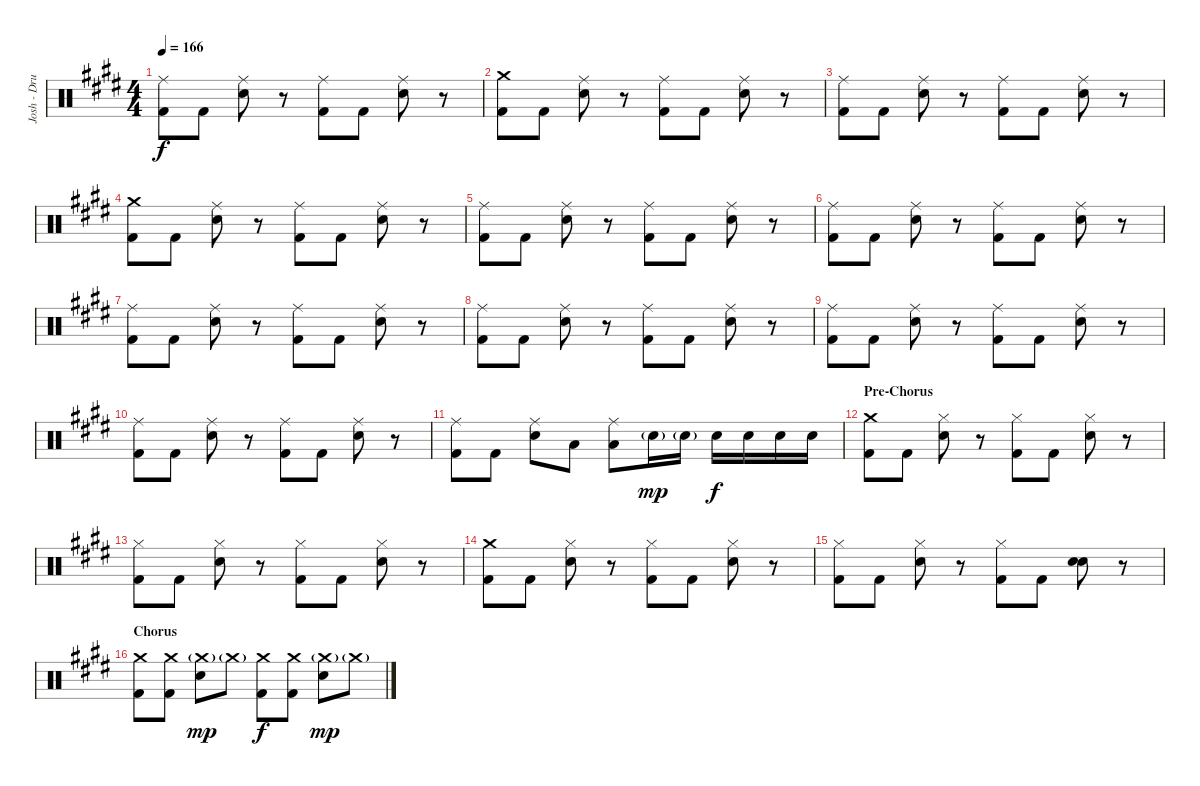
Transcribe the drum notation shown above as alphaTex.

\track ("Josh - Drums" "Josh - Dru") {instrument percussion}
\staff {score}
\articulation defaults
\ts (4 4)
\tempo 166
\clef neutral
\ks e
("Ride (middle)" "Kick (hit) 2").8{dy f} "Kick (hit) 2".8 ("Ride (middle)" "Electric Snare (hit)").8 r.8 ("Ride (middle)" "Kick (hit) 2").8 "Kick (hit) 2".8 ("Ride (middle)" "Electric Snare (hit)").8 r.8 |
("Crash medium (hit)" "Kick (hit) 2").8 "Kick (hit) 2".8 ("Ride (middle)" "Electric Snare (hit)").8 r.8 ("Ride (middle)" "Kick (hit) 2").8 "Kick (hit) 2".8 ("Ride (middle)" "Electric Snare (hit)").8 r.8 |
("Ride (middle)" "Kick (hit) 2").8 "Kick (hit) 2".8 ("Ride (middle)" "Electric Snare (hit)").8 r.8 ("Ride (middle)" "Kick (hit) 2").8 "Kick (hit) 2".8 ("Ride (middle)" "Electric Snare (hit)").8 r.8 |
("Crash medium (hit)" "Kick (hit) 2").8 "Kick (hit) 2".8 ("Ride (middle)" "Electric Snare (hit)").8 r.8 ("Ride (middle)" "Kick (hit) 2").8 "Kick (hit) 2".8 ("Ride (middle)" "Electric Snare (hit)").8 r.8 |
("Ride (middle)" "Kick (hit) 2").8 "Kick (hit) 2".8 ("Ride (middle)" "Electric Snare (hit)").8 r.8 ("Ride (middle)" "Kick (hit) 2").8 "Kick (hit) 2".8 ("Ride (middle)" "Electric Snare (hit)").8 r.8 |
("Ride (middle)" "Kick (hit) 2").8 "Kick (hit) 2".8 ("Ride (middle)" "Electric Snare (hit)").8 r.8 ("Ride (middle)" "Kick (hit) 2").8 "Kick (hit) 2".8 ("Ride (middle)" "Electric Snare (hit)").8 r.8 |
("Ride (middle)" "Kick (hit) 2").8 "Kick (hit) 2".8 ("Ride (middle)" "Electric Snare (hit)").8 r.8 ("Ride (middle)" "Kick (hit) 2").8 "Kick (hit) 2".8 ("Ride (middle)" "Electric Snare (hit)").8 r.8 |
("Ride (middle)" "Kick (hit) 2").8 "Kick (hit) 2".8 ("Ride (middle)" "Electric Snare (hit)").8 r.8 ("Ride (middle)" "Kick (hit) 2").8 "Kick (hit) 2".8 ("Ride (middle)" "Electric Snare (hit)").8 r.8 |
("Ride (middle)" "Kick (hit) 2").8 "Kick (hit) 2".8 ("Ride (middle)" "Electric Snare (hit)").8 r.8 ("Ride (middle)" "Kick (hit) 2").8 "Kick (hit) 2".8 ("Ride (middle)" "Electric Snare (hit)").8 r.8 |
("Ride (middle)" "Kick (hit) 2").8 "Kick (hit) 2".8 ("Ride (middle)" "Electric Snare (hit)").8 r.8 ("Ride (middle)" "Kick (hit) 2").8 "Kick (hit) 2".8 ("Ride (middle)" "Electric Snare (hit)").8 r.8 |
("Ride (middle)" "Kick (hit) 2").8 "Kick (hit) 2".8 ("Ride (middle)" "Electric Snare (hit)").8 "Low Tom (hit)".8 ("Ride (middle)" "Low Tom (hit)").8 "Electric Snare (hit)"{g}.16{dy mp} "Electric Snare (hit)"{g}.16 "Electric Snare (hit)".16{dy f} "Electric Snare (hit)".16 "Electric Snare (hit)".16 "Electric Snare (hit)".16 |
\section ("" "Pre-Chorus")
("Crash medium (hit)" "Kick (hit) 2").8 "Kick (hit) 2".8 ("Hi-Hat (closed)" "Electric Snare (hit)").8 r.8 ("Hi-Hat (closed)" "Kick (hit) 2").8 "Kick (hit) 2".8 ("Hi-Hat (closed)" "Electric Snare (hit)").8 r.8 |
("Hi-Hat (closed)" "Kick (hit) 2").8 "Kick (hit) 2".8 ("Hi-Hat (closed)" "Electric Snare (hit)").8 r.8 ("Hi-Hat (closed)" "Kick (hit) 2").8 "Kick (hit) 2".8 ("Hi-Hat (closed)" "Electric Snare (hit)").8 r.8 |
("Crash medium (hit)" "Kick (hit) 2").8 "Kick (hit) 2".8 ("Hi-Hat (closed)" "Electric Snare (hit)").8 r.8 ("Hi-Hat (closed)" "Kick (hit) 2").8 "Kick (hit) 2".8 ("Hi-Hat (closed)" "Electric Snare (hit)").8 r.8 |
("Hi-Hat (closed)" "Kick (hit) 2").8 "Kick (hit) 2".8 ("Hi-Hat (closed)" "Electric Snare (hit)").8 r.8 ("Hi-Hat (closed)" "Kick (hit) 2").8 "Kick (hit) 2".8 ("Electric Snare (hit)" "Electric Snare (hit)").8 r.8 |
\section ("" "Chorus")
("Crash medium (hit)" "Kick (hit) 2").8 ("Crash medium (hit)" "Kick (hit) 2").8 ("Crash medium (hit)"{g} "Electric Snare (hit)").8{dy mp} "Crash medium (hit)"{g}.8 ("Crash medium (hit)" "Kick (hit) 2").8{dy f} ("Crash medium (hit)" "Kick (hit) 2").8 ("Crash medium (hit)"{g} "Electric Snare (hit)").8{dy mp} "Crash medium (hit)"{g}.8
